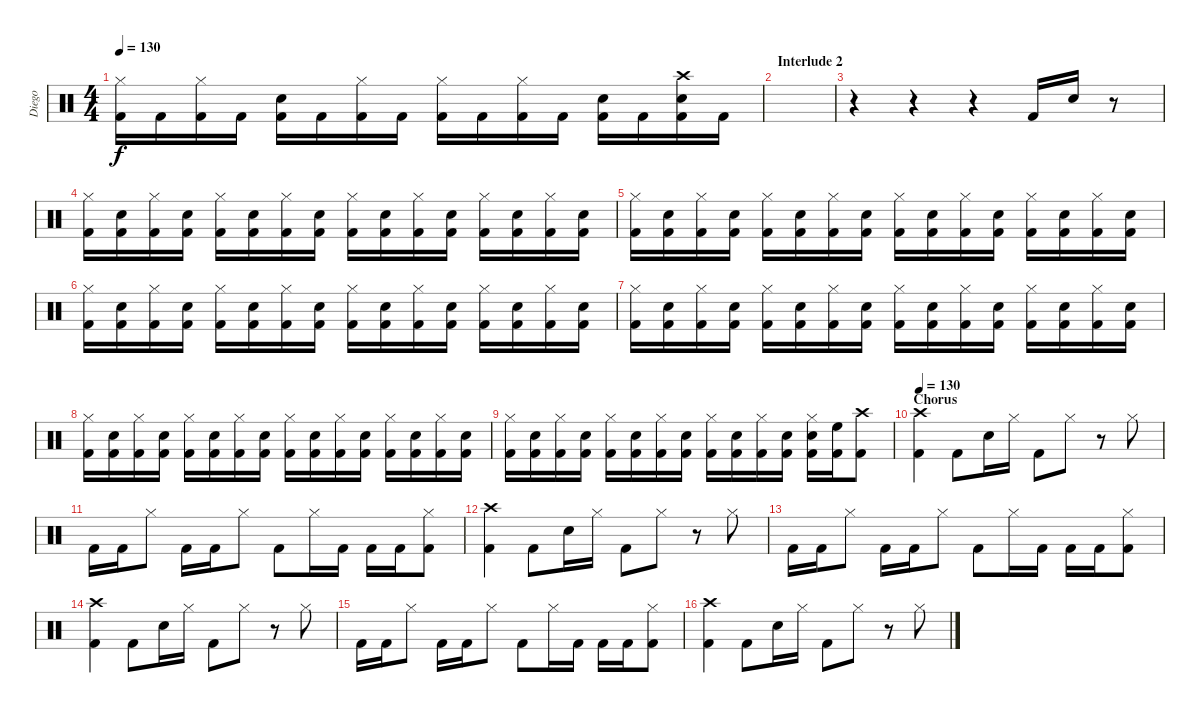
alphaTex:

\track ("Diego" "Diego") {instrument percussion}
\staff {score}
\articulation defaults
\ts (4 4)
\tempo 130
\clef neutral
\ks c
("Hi-Hat (closed)" "Kick (hit) 2").16{dy f} "Kick (hit) 2".16 ("Hi-Hat (closed)" "Kick (hit) 2").16 "Kick (hit) 2".16 ("Snare (hit) 2" "Kick (hit) 2").16 "Kick (hit) 2".16 ("Hi-Hat (closed)" "Kick (hit) 2").16 "Kick (hit) 2".16 ("Hi-Hat (closed)" "Kick (hit) 2").16 "Kick (hit) 2".16 ("Hi-Hat (closed)" "Kick (hit) 2").16 "Kick (hit) 2".16 ("Snare (hit) 2" "Kick (hit) 2").16 "Kick (hit) 2".16 ("Crash high (hit)" "Snare (hit) 2" "Kick (hit) 2").16 "Kick (hit) 2".16 |
\section ("" "Interlude 2")
|
r.4 r.4 r.4 "Kick (hit) 2".16 "Snare (hit) 2".16 r.8 |
("Hi-Hat (closed)" "Kick (hit) 2").16 ("Snare (hit) 2" "Kick (hit) 2").16 ("Hi-Hat (closed)" "Kick (hit) 2").16 ("Snare (hit) 2" "Kick (hit) 2").16 ("Hi-Hat (closed)" "Kick (hit) 2").16 ("Snare (hit) 2" "Kick (hit) 2").16 ("Hi-Hat (closed)" "Kick (hit) 2").16 ("Snare (hit) 2" "Kick (hit) 2").16 ("Hi-Hat (closed)" "Kick (hit) 2").16 ("Snare (hit) 2" "Kick (hit) 2").16 ("Hi-Hat (closed)" "Kick (hit) 2").16 ("Snare (hit) 2" "Kick (hit) 2").16 ("Hi-Hat (closed)" "Kick (hit) 2").16 ("Snare (hit) 2" "Kick (hit) 2").16 ("Hi-Hat (closed)" "Kick (hit) 2").16 ("Snare (hit) 2" "Kick (hit) 2").16 |
("Hi-Hat (closed)" "Kick (hit) 2").16 ("Snare (hit) 2" "Kick (hit) 2").16 ("Hi-Hat (closed)" "Kick (hit) 2").16 ("Snare (hit) 2" "Kick (hit) 2").16 ("Hi-Hat (closed)" "Kick (hit) 2").16 ("Snare (hit) 2" "Kick (hit) 2").16 ("Hi-Hat (closed)" "Kick (hit) 2").16 ("Snare (hit) 2" "Kick (hit) 2").16 ("Hi-Hat (closed)" "Kick (hit) 2").16 ("Snare (hit) 2" "Kick (hit) 2").16 ("Hi-Hat (closed)" "Kick (hit) 2").16 ("Snare (hit) 2" "Kick (hit) 2").16 ("Hi-Hat (closed)" "Kick (hit) 2").16 ("Snare (hit) 2" "Kick (hit) 2").16 ("Hi-Hat (closed)" "Kick (hit) 2").16 ("Snare (hit) 2" "Kick (hit) 2").16 |
("Hi-Hat (closed)" "Kick (hit) 2").16 ("Snare (hit) 2" "Kick (hit) 2").16 ("Hi-Hat (closed)" "Kick (hit) 2").16 ("Snare (hit) 2" "Kick (hit) 2").16 ("Hi-Hat (closed)" "Kick (hit) 2").16 ("Snare (hit) 2" "Kick (hit) 2").16 ("Hi-Hat (closed)" "Kick (hit) 2").16 ("Snare (hit) 2" "Kick (hit) 2").16 ("Hi-Hat (closed)" "Kick (hit) 2").16 ("Snare (hit) 2" "Kick (hit) 2").16 ("Hi-Hat (closed)" "Kick (hit) 2").16 ("Snare (hit) 2" "Kick (hit) 2").16 ("Hi-Hat (closed)" "Kick (hit) 2").16 ("Snare (hit) 2" "Kick (hit) 2").16 ("Hi-Hat (closed)" "Kick (hit) 2").16 ("Snare (hit) 2" "Kick (hit) 2").16 |
("Hi-Hat (closed)" "Kick (hit) 2").16 ("Snare (hit) 2" "Kick (hit) 2").16 ("Hi-Hat (closed)" "Kick (hit) 2").16 ("Snare (hit) 2" "Kick (hit) 2").16 ("Hi-Hat (closed)" "Kick (hit) 2").16 ("Snare (hit) 2" "Kick (hit) 2").16 ("Hi-Hat (closed)" "Kick (hit) 2").16 ("Snare (hit) 2" "Kick (hit) 2").16 ("Hi-Hat (closed)" "Kick (hit) 2").16 ("Snare (hit) 2" "Kick (hit) 2").16 ("Hi-Hat (closed)" "Kick (hit) 2").16 ("Snare (hit) 2" "Kick (hit) 2").16 ("Hi-Hat (closed)" "Kick (hit) 2").16 ("Snare (hit) 2" "Kick (hit) 2").16 ("Hi-Hat (closed)" "Kick (hit) 2").16 ("Snare (hit) 2" "Kick (hit) 2").16 |
("Hi-Hat (closed)" "Kick (hit) 2").16 ("Snare (hit) 2" "Kick (hit) 2").16 ("Hi-Hat (closed)" "Kick (hit) 2").16 ("Snare (hit) 2" "Kick (hit) 2").16 ("Hi-Hat (closed)" "Kick (hit) 2").16 ("Snare (hit) 2" "Kick (hit) 2").16 ("Hi-Hat (closed)" "Kick (hit) 2").16 ("Snare (hit) 2" "Kick (hit) 2").16 ("Hi-Hat (closed)" "Kick (hit) 2").16 ("Snare (hit) 2" "Kick (hit) 2").16 ("Hi-Hat (closed)" "Kick (hit) 2").16 ("Snare (hit) 2" "Kick (hit) 2").16 ("Hi-Hat (closed)" "Kick (hit) 2").16 ("Snare (hit) 2" "Kick (hit) 2").16 ("Hi-Hat (closed)" "Kick (hit) 2").16 ("Snare (hit) 2" "Kick (hit) 2").16 |
("Hi-Hat (closed)" "Kick (hit) 2").16 ("Snare (hit) 2" "Kick (hit) 2").16 ("Hi-Hat (closed)" "Kick (hit) 2").16 ("Snare (hit) 2" "Kick (hit) 2").16 ("Hi-Hat (closed)" "Kick (hit) 2").16 ("Snare (hit) 2" "Kick (hit) 2").16 ("Hi-Hat (closed)" "Kick (hit) 2").16 ("Snare (hit) 2" "Kick (hit) 2").16 ("Hi-Hat (closed)" "Kick (hit) 2").16 ("Snare (hit) 2" "Kick (hit) 2").16 ("Hi-Hat (closed)" "Kick (hit) 2").16 ("Snare (hit) 2" "Kick (hit) 2").16 ("Snare (hit) 2" "Hi-Hat (closed)" "Kick (hit) 2").16 ("High Floor Tom (hit)" "Kick (hit) 2").16 ("Crash high (hit)" "Kick (hit) 2").8 |
\section ("" "Chorus")
\tempo 130
("Crash high (hit)" "Kick (hit) 2").4 "Kick (hit) 2".8 "Snare (hit) 2".16 "Hi-Hat (closed)".16 "Kick (hit) 2".8 "Hi-Hat (closed)".8 r.8 "Hi-Hat (closed)".8 |
"Kick (hit) 2".16 "Kick (hit) 2".16 "Hi-Hat (closed)".8 "Kick (hit) 2".16 "Kick (hit) 2".16 "Hi-Hat (closed)".8 "Kick (hit) 2".8 "Hi-Hat (closed)".16 "Kick (hit) 2".16 "Kick (hit) 2".16 "Kick (hit) 2".16 ("Hi-Hat (closed)" "Kick (hit) 2").8 |
("Crash high (hit)" "Kick (hit) 2").4 "Kick (hit) 2".8 "Snare (hit) 2".16 "Hi-Hat (closed)".16 "Kick (hit) 2".8 "Hi-Hat (closed)".8 r.8 "Hi-Hat (closed)".8 |
"Kick (hit) 2".16 "Kick (hit) 2".16 "Hi-Hat (closed)".8 "Kick (hit) 2".16 "Kick (hit) 2".16 "Hi-Hat (closed)".8 "Kick (hit) 2".8 "Hi-Hat (closed)".16 "Kick (hit) 2".16 "Kick (hit) 2".16 "Kick (hit) 2".16 ("Hi-Hat (closed)" "Kick (hit) 2").8 |
("Crash high (hit)" "Kick (hit) 2").4 "Kick (hit) 2".8 "Snare (hit) 2".16 "Hi-Hat (closed)".16 "Kick (hit) 2".8 "Hi-Hat (closed)".8 r.8 "Hi-Hat (closed)".8 |
"Kick (hit) 2".16 "Kick (hit) 2".16 "Hi-Hat (closed)".8 "Kick (hit) 2".16 "Kick (hit) 2".16 "Hi-Hat (closed)".8 "Kick (hit) 2".8 "Hi-Hat (closed)".16 "Kick (hit) 2".16 "Kick (hit) 2".16 "Kick (hit) 2".16 ("Hi-Hat (closed)" "Kick (hit) 2").8 |
("Crash high (hit)" "Kick (hit) 2").4 "Kick (hit) 2".8 "Snare (hit) 2".16 "Hi-Hat (closed)".16 "Kick (hit) 2".8 "Hi-Hat (closed)".8 r.8 "Hi-Hat (closed)".8
